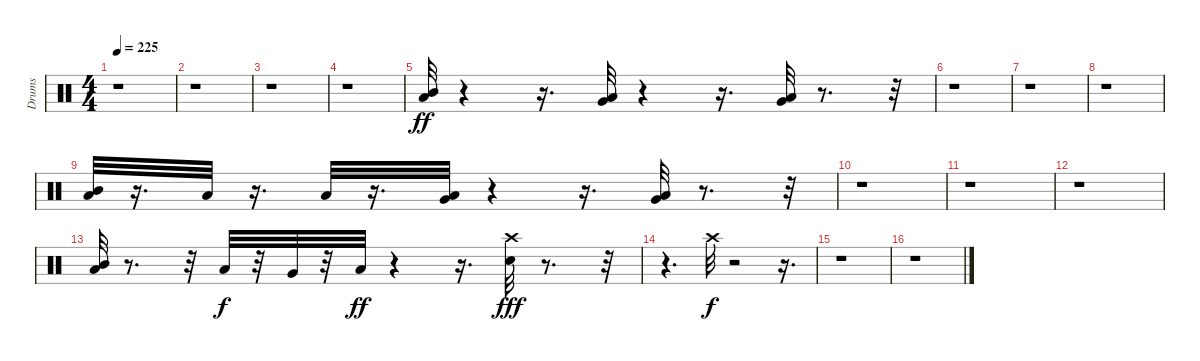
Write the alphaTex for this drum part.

\track ("Drums" "Drums") {instrument percussion}
\staff {score}
\articulation defaults
\ts (4 4)
\tempo 225
\clef neutral
\ks c
r.1{dy ff} |
r.1 |
r.1 |
r.1 |
("Mid Tom (hit)" "Low Tom (hit)").32 r.4 r.16{d} ("Low Tom (hit)" "Very Low Tom (hit)").32 r.4 r.16{d} ("Very Low Tom (hit)" "Low Floor Tom (hit)").32 r.8{d} r.32 |
r.1 |
r.1 |
r.1 |
("Mid Tom (hit)" "Low Tom (hit)").32 r.16{d} "Low Tom (hit)".32 r.16{d} "Low Tom (hit)".32 r.16{d} ("Low Tom (hit)" "Very Low Tom (hit)").32 r.4 r.16{d} ("Very Low Tom (hit)" "Low Floor Tom (hit)").32 r.8{d} r.32 |
r.1 |
r.1 |
r.1 |
("Mid Tom (hit)" "Low Tom (hit)").32 r.8{d} r.32 "Low Tom (hit)".32{dy f} r.32 "Very Low Tom (hit)".32 r.32 "Low Floor Tom (hit)".32{dy ff} r.4 r.16{d} ("Snare (hit) 2" "Crash high (hit)").32{dy fff} r.8{d} r.32 |
r.4{d} "Crash high (hit)".32{dy f} r.2 r.16{d} |
r.1 |
r.1
